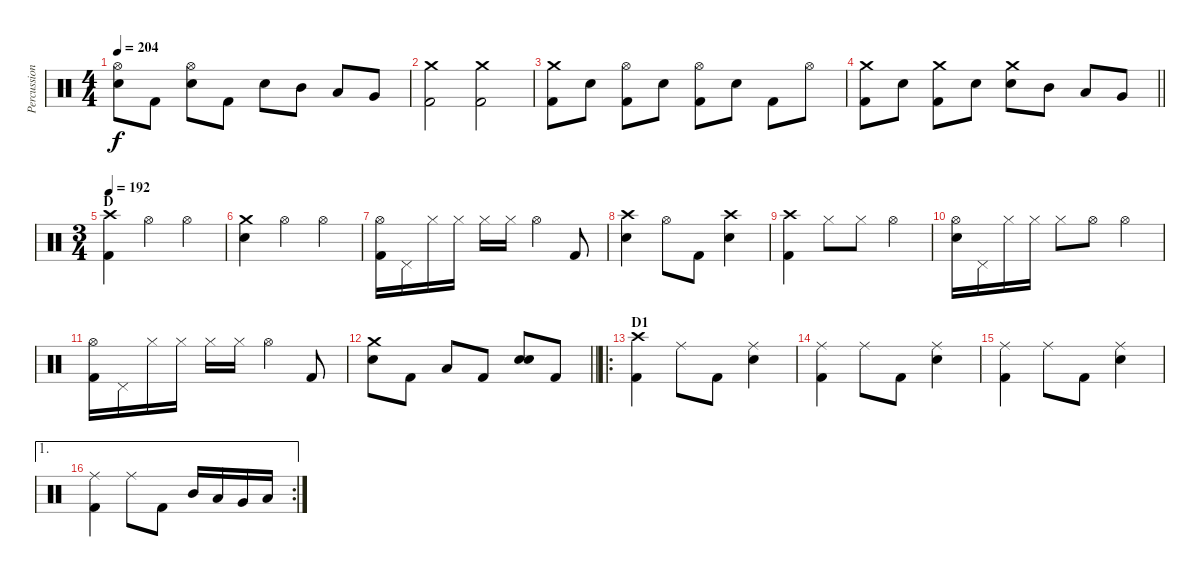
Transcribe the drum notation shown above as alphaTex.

\track ("Percussion" "Percussion") {instrument percussion}
\staff {score}
\articulation defaults
\ts (4 4)
\tempo 204
\clef neutral
\ks c
("Hi-Hat (open)" "Electric Snare (hit)").8{dy f} "Kick (hit) 2".8 ("Hi-Hat (open)" "Electric Snare (hit)").8 "Kick (hit) 2".8 "Electric Snare (hit)".8 "Mid Tom (hit)".8 "Low Tom (hit)".8 "Very Low Tom (hit)".8 |
("Crash medium (hit)" "Kick (hit) 2").2 ("Crash medium (hit)" "Kick (hit) 2").2 |
("Crash medium (hit)" "Kick (hit) 2").8 "Electric Snare (hit)".8 ("Hi-Hat (open)" "Kick (hit) 2").8 "Electric Snare (hit)".8 ("Hi-Hat (open)" "Kick (hit) 2").8 "Electric Snare (hit)".8 "Kick (hit) 2".8 "Hi-Hat (open)".8 |
\barLineRight lightlight
("Crash medium (hit)" "Kick (hit) 2").8 "Electric Snare (hit)".8 ("Crash medium (hit)" "Kick (hit) 2").8 "Electric Snare (hit)".8 ("Crash medium (hit)" "Electric Snare (hit)").8 "Mid Tom (hit)".8 "Low Tom (hit)".8 "Very Low Tom (hit)".8 |
\ts (3 4)
\section ("" "D")
\tempo 192
("Crash high (hit)" "Kick (hit) 2").4 "Hi-Hat (open)".4 "Hi-Hat (open)".4 |
("Crash medium (hit)" "Electric Snare (hit)").4 "Hi-Hat (open)".4 "Hi-Hat (open)".4 |
("Hi-Hat (open)" "Kick (hit) 2").16 "Pedal Hi-Hat (hit)".16 "Hi-Hat (closed)".16 "Hi-Hat (closed)".16 "Hi-Hat (closed)".16 "Hi-Hat (closed)".16 "Hi-Hat (open)".4 "Kick (hit) 2".8 |
("Crash high (hit)" "Electric Snare (hit)").4 "Hi-Hat (open)".8 "Kick (hit) 2".8 ("Crash high (hit)" "Electric Snare (hit)").4 |
("Crash high (hit)" "Kick (hit) 2").4 "Hi-Hat (closed)".8 "Hi-Hat (closed)".8 "Hi-Hat (open)".4 |
("Hi-Hat (open)" "Electric Snare (hit)").16 "Pedal Hi-Hat (hit)".16 "Hi-Hat (closed)".16 "Hi-Hat (closed)".16 "Hi-Hat (closed)".8 "Hi-Hat (open)".8 "Hi-Hat (open)".4 |
("Hi-Hat (open)" "Kick (hit) 2").16 "Pedal Hi-Hat (hit)".16 "Hi-Hat (closed)".16 "Hi-Hat (closed)".16 "Hi-Hat (closed)".16 "Hi-Hat (closed)".16 "Hi-Hat (open)".4 "Kick (hit) 2".8 |
\barLineRight lightlight
("Crash medium (hit)" "Electric Snare (hit)").8 "Kick (hit) 2".8 "Low Tom (hit)".8 "Kick (hit) 2".8 ("Electric Snare (hit)" "Electric Snare (hit)").8{bd 60} "Kick (hit) 2".8 |
\ro
\section ("" "D1")
("Crash high (hit)" "Kick (hit) 2").4 "Ride (middle)".8 "Kick (hit) 2".8 ("Ride (middle)" "Electric Snare (hit)").4 |
("Ride (middle)" "Kick (hit) 2").4 "Ride (middle)".8 "Kick (hit) 2".8 ("Ride (middle)" "Electric Snare (hit)").4 |
("Ride (middle)" "Kick (hit) 2").4 "Ride (middle)".8 "Kick (hit) 2".8 ("Ride (middle)" "Electric Snare (hit)").4 |
\ae 1
\rc 2
("Ride (middle)" "Kick (hit) 2").4 "Ride (middle)".8 "Kick (hit) 2".8 "Mid Tom (hit)".16 "Low Tom (hit)".16 "Very Low Tom (hit)".16 "Low Floor Tom (hit)".16
